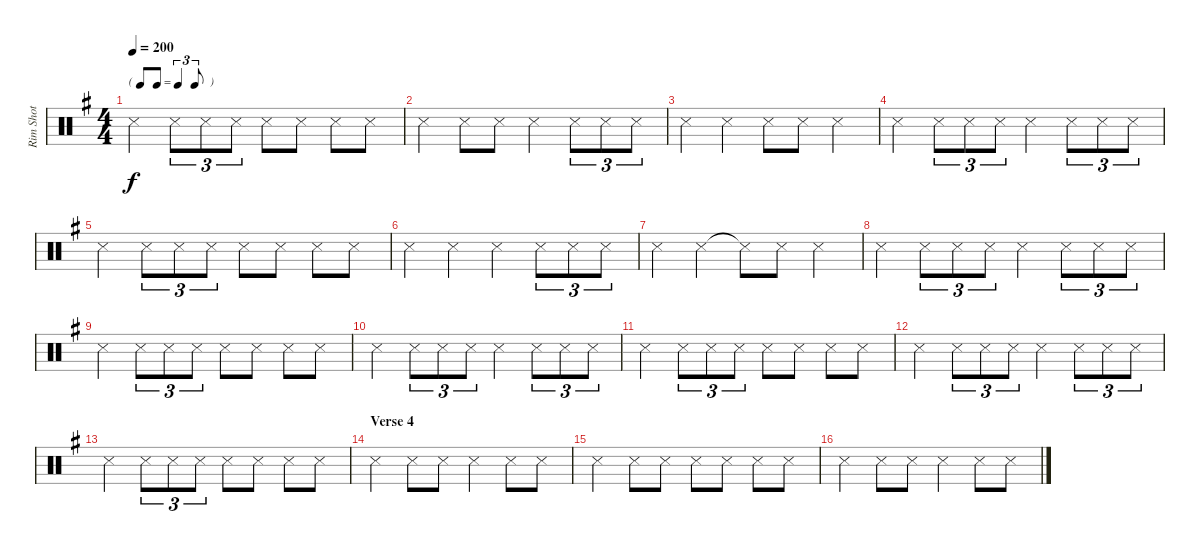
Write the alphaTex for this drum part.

\track ("Rim Shot" "Rim Shot") {instrument percussion}
\staff {score}
\articulation defaults
\ts (4 4)
\tf triplet8th
\tempo 200
\clef neutral
\ks g "Snare (side stick) 3".4{dy f} "Snare (side stick) 3".8{tu (3 2)} "Snare (side stick) 3".8{tu (3 2)} "Snare (side stick) 3".8{tu (3 2)} "Snare (side stick) 3".8 "Snare (side stick) 3".8 "Snare (side stick) 3".8 "Snare (side stick) 3".8
|
"Snare (side stick) 3".4 "Snare (side stick) 3".8 "Snare (side stick) 3".8 "Snare (side stick) 3".4 "Snare (side stick) 3".8{tu (3 2)} "Snare (side stick) 3".8{tu (3 2)} "Snare (side stick) 3".8{tu (3 2)} |
"Snare (side stick) 3".4 "Snare (side stick) 3".4 "Snare (side stick) 3".8 "Snare (side stick) 3".8 "Snare (side stick) 3".4 |
"Snare (side stick) 3".4 "Snare (side stick) 3".8{tu (3 2)} "Snare (side stick) 3".8{tu (3 2)} "Snare (side stick) 3".8{tu (3 2)} "Snare (side stick) 3".4 "Snare (side stick) 3".8{tu (3 2)} "Snare (side stick) 3".8{tu (3 2)} "Snare (side stick) 3".8{tu (3 2)} |
"Snare (side stick) 3".4 "Snare (side stick) 3".8{tu (3 2)} "Snare (side stick) 3".8{tu (3 2)} "Snare (side stick) 3".8{tu (3 2)} "Snare (side stick) 3".8 "Snare (side stick) 3".8 "Snare (side stick) 3".8 "Snare (side stick) 3".8 |
"Snare (side stick) 3".4 "Snare (side stick) 3".4 "Snare (side stick) 3".4 "Snare (side stick) 3".8{tu (3 2)} "Snare (side stick) 3".8{tu (3 2)} "Snare (side stick) 3".8{tu (3 2)} |
"Snare (side stick) 3".4 "Snare (side stick) 3".4 "Snare (side stick) 3"{t}.8 "Snare (side stick) 3".8 "Snare (side stick) 3".4 |
"Snare (side stick) 3".4 "Snare (side stick) 3".8{tu (3 2)} "Snare (side stick) 3".8{tu (3 2)} "Snare (side stick) 3".8{tu (3 2)} "Snare (side stick) 3".4 "Snare (side stick) 3".8{tu (3 2)} "Snare (side stick) 3".8{tu (3 2)} "Snare (side stick) 3".8{tu (3 2)} |
"Snare (side stick) 3".4 "Snare (side stick) 3".8{tu (3 2)} "Snare (side stick) 3".8{tu (3 2)} "Snare (side stick) 3".8{tu (3 2)} "Snare (side stick) 3".8 "Snare (side stick) 3".8 "Snare (side stick) 3".8 "Snare (side stick) 3".8 |
"Snare (side stick) 3".4 "Snare (side stick) 3".8{tu (3 2)} "Snare (side stick) 3".8{tu (3 2)} "Snare (side stick) 3".8{tu (3 2)} "Snare (side stick) 3".4 "Snare (side stick) 3".8{tu (3 2)} "Snare (side stick) 3".8{tu (3 2)} "Snare (side stick) 3".8{tu (3 2)} |
"Snare (side stick) 3".4 "Snare (side stick) 3".8{tu (3 2)} "Snare (side stick) 3".8{tu (3 2)} "Snare (side stick) 3".8{tu (3 2)} "Snare (side stick) 3".8 "Snare (side stick) 3".8 "Snare (side stick) 3".8 "Snare (side stick) 3".8 |
"Snare (side stick) 3".4 "Snare (side stick) 3".8{tu (3 2)} "Snare (side stick) 3".8{tu (3 2)} "Snare (side stick) 3".8{tu (3 2)} "Snare (side stick) 3".4 "Snare (side stick) 3".8{tu (3 2)} "Snare (side stick) 3".8{tu (3 2)} "Snare (side stick) 3".8{tu (3 2)} |
"Snare (side stick) 3".4 "Snare (side stick) 3".8{tu (3 2)} "Snare (side stick) 3".8{tu (3 2)} "Snare (side stick) 3".8{tu (3 2)} "Snare (side stick) 3".8 "Snare (side stick) 3".8 "Snare (side stick) 3".8 "Snare (side stick) 3".8 |
\section ("" "Verse 4")
"Snare (side stick) 3".4 "Snare (side stick) 3".8 "Snare (side stick) 3".8 "Snare (side stick) 3".4 "Snare (side stick) 3".8 "Snare (side stick) 3".8 |
"Snare (side stick) 3".4 "Snare (side stick) 3".8 "Snare (side stick) 3".8 "Snare (side stick) 3".8 "Snare (side stick) 3".8 "Snare (side stick) 3".8 "Snare (side stick) 3".8 |
"Snare (side stick) 3".4 "Snare (side stick) 3".8 "Snare (side stick) 3".8 "Snare (side stick) 3".4 "Snare (side stick) 3".8 "Snare (side stick) 3".8
